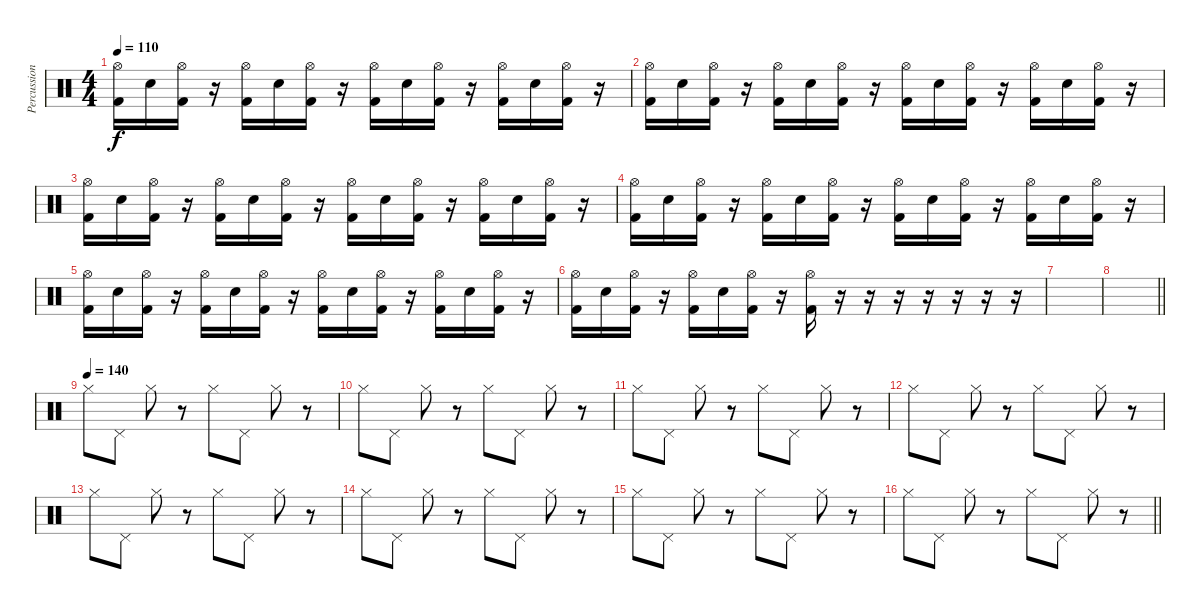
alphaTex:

\track ("Percussion" "Percussion") {instrument percussion}
\staff {score}
\articulation defaults
\ts (4 4)
\tempo 110
\clef neutral
\ks c
("Hi-Hat (open)" "Kick (hit) 2").16{dy f} "Snare (hit) 2".16 ("Hi-Hat (open)" "Kick (hit) 2").16 r.16 ("Hi-Hat (open)" "Kick (hit) 2").16 "Snare (hit) 2".16 ("Hi-Hat (open)" "Kick (hit) 2").16 r.16 ("Hi-Hat (open)" "Kick (hit) 2").16 "Snare (hit) 2".16 ("Hi-Hat (open)" "Kick (hit) 2").16 r.16 ("Hi-Hat (open)" "Kick (hit) 2").16 "Snare (hit) 2".16 ("Hi-Hat (open)" "Kick (hit) 2").16 r.16 |
("Hi-Hat (open)" "Kick (hit) 2").16 "Snare (hit) 2".16 ("Hi-Hat (open)" "Kick (hit) 2").16 r.16 ("Hi-Hat (open)" "Kick (hit) 2").16 "Snare (hit) 2".16 ("Hi-Hat (open)" "Kick (hit) 2").16 r.16 ("Hi-Hat (open)" "Kick (hit) 2").16 "Snare (hit) 2".16 ("Hi-Hat (open)" "Kick (hit) 2").16 r.16 ("Hi-Hat (open)" "Kick (hit) 2").16 "Snare (hit) 2".16 ("Hi-Hat (open)" "Kick (hit) 2").16 r.16 |
("Hi-Hat (open)" "Kick (hit) 2").16 "Snare (hit) 2".16 ("Hi-Hat (open)" "Kick (hit) 2").16 r.16 ("Hi-Hat (open)" "Kick (hit) 2").16 "Snare (hit) 2".16 ("Hi-Hat (open)" "Kick (hit) 2").16 r.16 ("Hi-Hat (open)" "Kick (hit) 2").16 "Snare (hit) 2".16 ("Hi-Hat (open)" "Kick (hit) 2").16 r.16 ("Hi-Hat (open)" "Kick (hit) 2").16 "Snare (hit) 2".16 ("Hi-Hat (open)" "Kick (hit) 2").16 r.16 |
("Hi-Hat (open)" "Kick (hit) 2").16 "Snare (hit) 2".16 ("Hi-Hat (open)" "Kick (hit) 2").16 r.16 ("Hi-Hat (open)" "Kick (hit) 2").16 "Snare (hit) 2".16 ("Hi-Hat (open)" "Kick (hit) 2").16 r.16 ("Hi-Hat (open)" "Kick (hit) 2").16 "Snare (hit) 2".16 ("Hi-Hat (open)" "Kick (hit) 2").16 r.16 ("Hi-Hat (open)" "Kick (hit) 2").16 "Snare (hit) 2".16 ("Hi-Hat (open)" "Kick (hit) 2").16 r.16 |
("Hi-Hat (open)" "Kick (hit) 2").16 "Snare (hit) 2".16 ("Hi-Hat (open)" "Kick (hit) 2").16 r.16 ("Hi-Hat (open)" "Kick (hit) 2").16 "Snare (hit) 2".16 ("Hi-Hat (open)" "Kick (hit) 2").16 r.16 ("Hi-Hat (open)" "Kick (hit) 2").16 "Snare (hit) 2".16 ("Hi-Hat (open)" "Kick (hit) 2").16 r.16 ("Hi-Hat (open)" "Kick (hit) 2").16 "Snare (hit) 2".16 ("Hi-Hat (open)" "Kick (hit) 2").16 r.16 |
("Hi-Hat (open)" "Kick (hit) 2").16 "Snare (hit) 2".16 ("Hi-Hat (open)" "Kick (hit) 2").16 r.16 ("Hi-Hat (open)" "Kick (hit) 2").16 "Snare (hit) 2".16 ("Hi-Hat (open)" "Kick (hit) 2").16 r.16 ("Hi-Hat (open)" "Kick (hit) 2").16 r.16 r.16 r.16 r.16 r.16 r.16 r.16 |
|
\barLineRight lightlight
|
\tempo (140)
"Hi-Hat (closed)".8 "Pedal Hi-Hat (hit)".8 "Hi-Hat (closed)".8 r.8 "Hi-Hat (closed)".8 "Pedal Hi-Hat (hit)".8 "Hi-Hat (closed)".8 r.8 |
"Hi-Hat (closed)".8 "Pedal Hi-Hat (hit)".8 "Hi-Hat (closed)".8 r.8 "Hi-Hat (closed)".8 "Pedal Hi-Hat (hit)".8 "Hi-Hat (closed)".8 r.8 |
"Hi-Hat (closed)".8 "Pedal Hi-Hat (hit)".8 "Hi-Hat (closed)".8 r.8 "Hi-Hat (closed)".8 "Pedal Hi-Hat (hit)".8 "Hi-Hat (closed)".8 r.8 |
"Hi-Hat (closed)".8 "Pedal Hi-Hat (hit)".8 "Hi-Hat (closed)".8 r.8 "Hi-Hat (closed)".8 "Pedal Hi-Hat (hit)".8 "Hi-Hat (closed)".8 r.8 |
"Hi-Hat (closed)".8 "Pedal Hi-Hat (hit)".8 "Hi-Hat (closed)".8 r.8 "Hi-Hat (closed)".8 "Pedal Hi-Hat (hit)".8 "Hi-Hat (closed)".8 r.8 |
"Hi-Hat (closed)".8 "Pedal Hi-Hat (hit)".8 "Hi-Hat (closed)".8 r.8 "Hi-Hat (closed)".8 "Pedal Hi-Hat (hit)".8 "Hi-Hat (closed)".8 r.8 |
"Hi-Hat (closed)".8 "Pedal Hi-Hat (hit)".8 "Hi-Hat (closed)".8 r.8 "Hi-Hat (closed)".8 "Pedal Hi-Hat (hit)".8 "Hi-Hat (closed)".8 r.8 |
\barLineRight lightlight "Hi-Hat (closed)".8 "Pedal Hi-Hat (hit)".8 "Hi-Hat (closed)".8
r.8 "Hi-Hat (closed)".8 "Pedal Hi-Hat (hit)".8 "Hi-Hat (closed)".8 r.8
